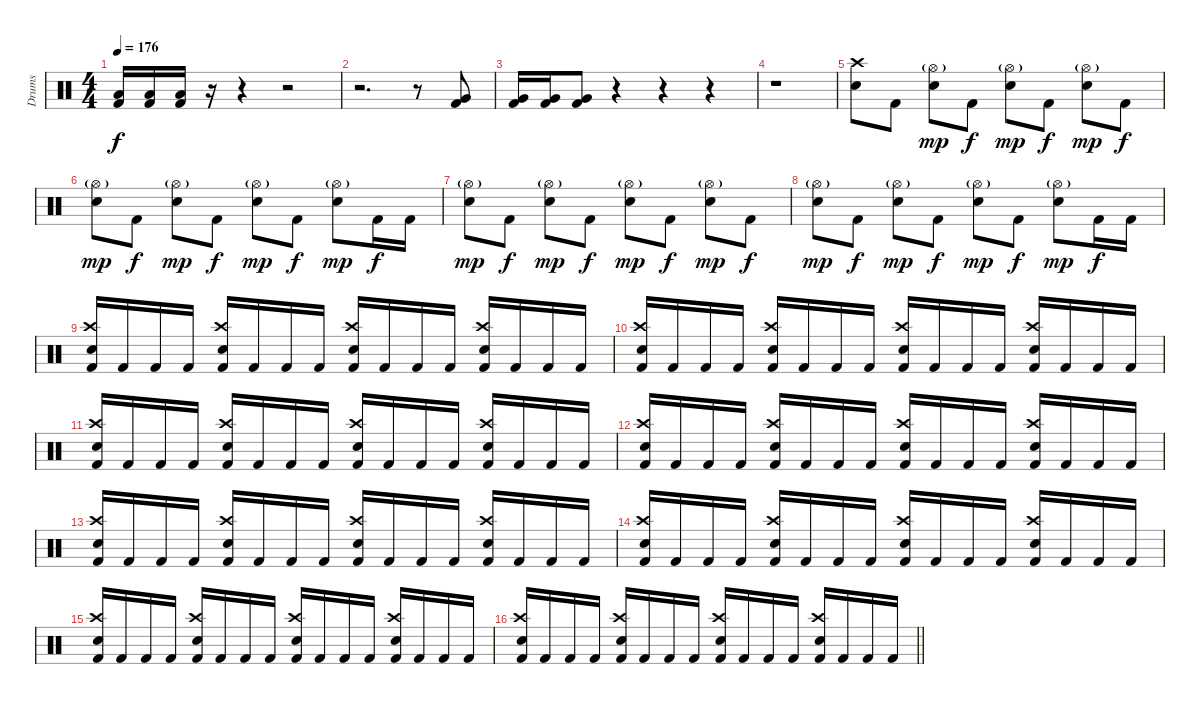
\track ("Drums" "Drums") {instrument percussion}
\staff {score}
\articulation defaults
\ts (4 4)
\tempo 176
\clef neutral
\ks c
("Low Tom (hit)" "Kick (hit) 2").16{dy f} ("Low Tom (hit)" "Kick (hit) 2").16 ("Low Tom (hit)" "Kick (hit) 2").16 r.16 r.4 r.2 |
r.2{d} r.8 ("Very Low Tom (hit)" "Kick (hit) 2").8 |
("Very Low Tom (hit)" "Kick (hit) 2").16 ("Very Low Tom (hit)" "Kick (hit) 2").16 ("Very Low Tom (hit)" "Kick (hit) 2").8 r.4 r.4 r.4 |
r.1 |
("Crash high (hit)" "Electric Snare (hit)").8 "Kick (hit) 2".8 ("Hi-Hat (open)"{g} "Electric Snare (hit)").8{dy mp} "Kick (hit) 2".8{dy f} ("Hi-Hat (open)"{g} "Electric Snare (hit)").8{dy mp} "Kick (hit) 2".8{dy f} ("Hi-Hat (open)"{g} "Electric Snare (hit)").8{dy mp} "Kick (hit) 2".8{dy f} |
("Hi-Hat (open)"{g} "Electric Snare (hit)").8{dy mp} "Kick (hit) 2".8{dy f} ("Hi-Hat (open)"{g} "Electric Snare (hit)").8{dy mp} "Kick (hit) 2".8{dy f} ("Hi-Hat (open)"{g} "Electric Snare (hit)").8{dy mp} "Kick (hit) 2".8{dy f} ("Hi-Hat (open)"{g} "Electric Snare (hit)").8{dy mp} "Kick (hit) 2".16{dy f} "Kick (hit) 2".16 |
("Hi-Hat (open)"{g} "Electric Snare (hit)").8{dy mp} "Kick (hit) 2".8{dy f} ("Hi-Hat (open)"{g} "Electric Snare (hit)").8{dy mp} "Kick (hit) 2".8{dy f} ("Hi-Hat (open)"{g} "Electric Snare (hit)").8{dy mp} "Kick (hit) 2".8{dy f} ("Hi-Hat (open)"{g} "Electric Snare (hit)").8{dy mp} "Kick (hit) 2".8{dy f} |
("Hi-Hat (open)"{g} "Electric Snare (hit)").8{dy mp} "Kick (hit) 2".8{dy f} ("Hi-Hat (open)"{g} "Electric Snare (hit)").8{dy mp} "Kick (hit) 2".8{dy f} ("Hi-Hat (open)"{g} "Electric Snare (hit)").8{dy mp} "Kick (hit) 2".8{dy f} ("Hi-Hat (open)"{g} "Electric Snare (hit)").8{dy mp} "Kick (hit) 2".16{dy f} "Kick (hit) 2".16 |
("Crash high (hit)" "Electric Snare (hit)" "Kick (hit) 2").16 "Kick (hit) 2".16 "Kick (hit) 2".16 "Kick (hit) 2".16 ("Crash high (hit)" "Electric Snare (hit)" "Kick (hit) 2").16 "Kick (hit) 2".16 "Kick (hit) 2".16 "Kick (hit) 2".16 ("Crash high (hit)" "Electric Snare (hit)" "Kick (hit) 2").16 "Kick (hit) 2".16 "Kick (hit) 2".16 "Kick (hit) 2".16 ("Crash high (hit)" "Electric Snare (hit)" "Kick (hit) 2").16 "Kick (hit) 2".16 "Kick (hit) 2".16 "Kick (hit) 2".16 |
("Crash high (hit)" "Electric Snare (hit)" "Kick (hit) 2").16 "Kick (hit) 2".16 "Kick (hit) 2".16 "Kick (hit) 2".16 ("Crash high (hit)" "Electric Snare (hit)" "Kick (hit) 2").16 "Kick (hit) 2".16 "Kick (hit) 2".16 "Kick (hit) 2".16 ("Crash high (hit)" "Electric Snare (hit)" "Kick (hit) 2").16 "Kick (hit) 2".16 "Kick (hit) 2".16 "Kick (hit) 2".16 ("Crash high (hit)" "Electric Snare (hit)" "Kick (hit) 2").16 "Kick (hit) 2".16 "Kick (hit) 2".16 "Kick (hit) 2".16 |
("Crash high (hit)" "Electric Snare (hit)" "Kick (hit) 2").16 "Kick (hit) 2".16 "Kick (hit) 2".16 "Kick (hit) 2".16 ("Crash high (hit)" "Electric Snare (hit)" "Kick (hit) 2").16 "Kick (hit) 2".16 "Kick (hit) 2".16 "Kick (hit) 2".16 ("Crash high (hit)" "Electric Snare (hit)" "Kick (hit) 2").16 "Kick (hit) 2".16 "Kick (hit) 2".16 "Kick (hit) 2".16 ("Crash high (hit)" "Electric Snare (hit)" "Kick (hit) 2").16 "Kick (hit) 2".16 "Kick (hit) 2".16 "Kick (hit) 2".16 |
("Crash high (hit)" "Electric Snare (hit)" "Kick (hit) 2").16 "Kick (hit) 2".16 "Kick (hit) 2".16 "Kick (hit) 2".16 ("Crash high (hit)" "Electric Snare (hit)" "Kick (hit) 2").16 "Kick (hit) 2".16 "Kick (hit) 2".16 "Kick (hit) 2".16 ("Crash high (hit)" "Electric Snare (hit)" "Kick (hit) 2").16 "Kick (hit) 2".16 "Kick (hit) 2".16 "Kick (hit) 2".16 ("Crash high (hit)" "Electric Snare (hit)" "Kick (hit) 2").16 "Kick (hit) 2".16 "Kick (hit) 2".16 "Kick (hit) 2".16 |
("Crash high (hit)" "Electric Snare (hit)" "Kick (hit) 2").16 "Kick (hit) 2".16 "Kick (hit) 2".16 "Kick (hit) 2".16 ("Crash high (hit)" "Electric Snare (hit)" "Kick (hit) 2").16 "Kick (hit) 2".16 "Kick (hit) 2".16 "Kick (hit) 2".16 ("Crash high (hit)" "Electric Snare (hit)" "Kick (hit) 2").16 "Kick (hit) 2".16 "Kick (hit) 2".16 "Kick (hit) 2".16 ("Crash high (hit)" "Electric Snare (hit)" "Kick (hit) 2").16 "Kick (hit) 2".16 "Kick (hit) 2".16 "Kick (hit) 2".16 |
("Crash high (hit)" "Electric Snare (hit)" "Kick (hit) 2").16 "Kick (hit) 2".16 "Kick (hit) 2".16 "Kick (hit) 2".16 ("Crash high (hit)" "Electric Snare (hit)" "Kick (hit) 2").16 "Kick (hit) 2".16 "Kick (hit) 2".16 "Kick (hit) 2".16 ("Crash high (hit)" "Electric Snare (hit)" "Kick (hit) 2").16 "Kick (hit) 2".16 "Kick (hit) 2".16 "Kick (hit) 2".16 ("Crash high (hit)" "Electric Snare (hit)" "Kick (hit) 2").16 "Kick (hit) 2".16 "Kick (hit) 2".16 "Kick (hit) 2".16 |
("Crash high (hit)" "Electric Snare (hit)" "Kick (hit) 2").16 "Kick (hit) 2".16 "Kick (hit) 2".16 "Kick (hit) 2".16 ("Crash high (hit)" "Electric Snare (hit)" "Kick (hit) 2").16 "Kick (hit) 2".16 "Kick (hit) 2".16 "Kick (hit) 2".16 ("Crash high (hit)" "Electric Snare (hit)" "Kick (hit) 2").16 "Kick (hit) 2".16 "Kick (hit) 2".16 "Kick (hit) 2".16 ("Crash high (hit)" "Electric Snare (hit)" "Kick (hit) 2").16 "Kick (hit) 2".16 "Kick (hit) 2".16 "Kick (hit) 2".16 |
\barLineRight lightlight
("Crash high (hit)" "Electric Snare (hit)" "Kick (hit) 2").16 "Kick (hit) 2".16 "Kick (hit) 2".16 "Kick (hit) 2".16 ("Crash high (hit)" "Electric Snare (hit)" "Kick (hit) 2").16 "Kick (hit) 2".16 "Kick (hit) 2".16 "Kick (hit) 2".16 ("Crash high (hit)" "Electric Snare (hit)" "Kick (hit) 2").16 "Kick (hit) 2".16 "Kick (hit) 2".16 "Kick (hit) 2".16 ("Crash high (hit)" "Electric Snare (hit)" "Kick (hit) 2").16 "Kick (hit) 2".16 "Kick (hit) 2".16 "Kick (hit) 2".16
